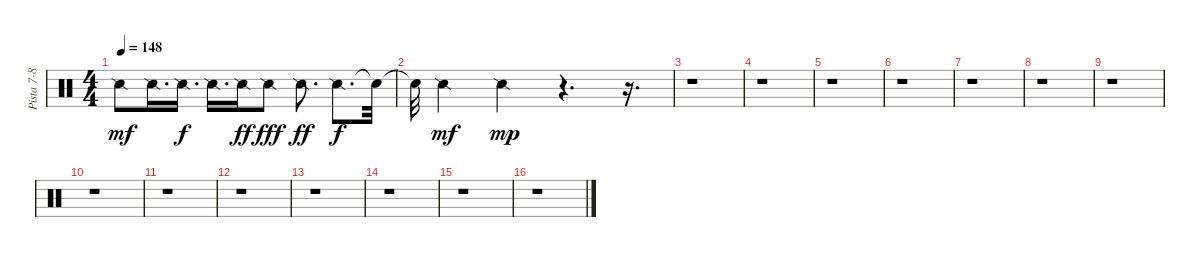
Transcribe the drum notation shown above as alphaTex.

\track ("Pista 7-8" "Pista 7-8") {instrument percussion}
\staff {score}
\articulation defaults
\ts (4 4)
\tempo 148
\clef neutral
\ks c "Snare (side stick) 2".8{dy mf} "Snare (side stick) 2".16{d} "Snare (side stick) 2".16{d dy f} "Snare (side stick) 2".16{d} "Snare (side stick) 2".16{dy ff} "Snare (side stick) 2".8{dy fff} "Snare (side stick) 2".8{d dy ff} "Snare (side stick) 2".8{d dy f} "Snare (hit)"{t}.32
|
"Snare (hit)"{t}.32 "Snare (side stick) 2".4{dy mf} "Snare (side stick) 2".4{dy mp} r.4{d} r.16{d} |
r.1 |
r.1 |
r.1 |
r.1 |
r.1 |
r.1 |
r.1 |
r.1 |
r.1 |
r.1 |
r.1 |
r.1 |
r.1 |
r.1
